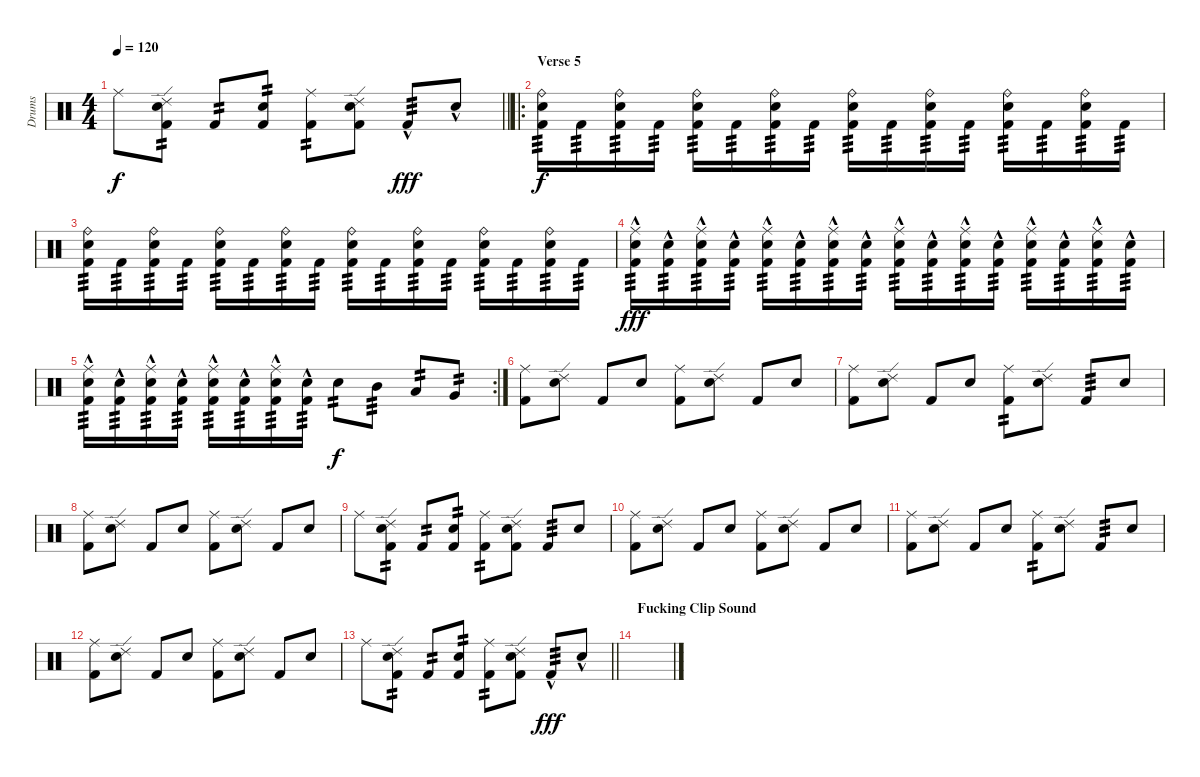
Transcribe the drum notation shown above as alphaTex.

\track ("Drums " "Drums ") {instrument percussion}
\staff {score}
\articulation defaults
\ts (4 4)
\tempo 120
\clef neutral
\barLineRight lightlight
\ks c "Ride (middle)".8{dy f}
("Ride (edge) 2" "Snare (hit) 2" "Kick (hit) 2").8{tp 2} "Kick (hit) 2".8{tp 2} ("Snare (hit) 2" "Kick (hit) 2").8{tp 2} ("Ride (middle)" "Kick (hit) 2").8{tp 2} ("Ride (edge) 2" "Snare (hit) 2" "Kick (hit) 2").8 "Kick (hit) 2"{hac}.8{tp 3 dy fff} "Snare (hit) 2"{hac}.8 |
\ro
\section ("" "Verse 5")
("Ride (bell)" "Snare (hit) 2" "Kick (hit) 2").16{tp 3 dy f} "Kick (hit) 2".16{tp 3} ("Ride (bell)" "Snare (hit) 2" "Kick (hit) 2").16{tp 3} "Kick (hit) 2".16{tp 3} ("Ride (bell)" "Snare (hit) 2" "Kick (hit) 2").16{tp 3} "Kick (hit) 2".16{tp 3} ("Ride (bell)" "Snare (hit) 2" "Kick (hit) 2").16{tp 3} "Kick (hit) 2".16{tp 3} ("Ride (bell)" "Snare (hit) 2" "Kick (hit) 2").16{tp 3} "Kick (hit) 2".16{tp 3} ("Ride (bell)" "Snare (hit) 2" "Kick (hit) 2").16{tp 3} "Kick (hit) 2".16{tp 3} ("Ride (bell)" "Snare (hit) 2" "Kick (hit) 2").16{tp 3} "Kick (hit) 2".16{tp 3} ("Ride (bell)" "Snare (hit) 2" "Kick (hit) 2").16{tp 3} "Kick (hit) 2".16{tp 3} |
("Ride (bell)" "Snare (hit) 2" "Kick (hit) 2").16{tp 3} "Kick (hit) 2".16{tp 3} ("Ride (bell)" "Snare (hit) 2" "Kick (hit) 2").16{tp 3} "Kick (hit) 2".16{tp 3} ("Ride (bell)" "Snare (hit) 2" "Kick (hit) 2").16{tp 3} "Kick (hit) 2".16{tp 3} ("Ride (bell)" "Snare (hit) 2" "Kick (hit) 2").16{tp 3} "Kick (hit) 2".16{tp 3} ("Ride (bell)" "Snare (hit) 2" "Kick (hit) 2").16{tp 3} "Kick (hit) 2".16{tp 3} ("Ride (bell)" "Snare (hit) 2" "Kick (hit) 2").16{tp 3} "Kick (hit) 2".16{tp 3} ("Ride (bell)" "Snare (hit) 2" "Kick (hit) 2").16{tp 3} "Kick (hit) 2".16{tp 3} ("Ride (bell)" "Snare (hit) 2" "Kick (hit) 2").16{tp 3} "Kick (hit) 2".16{tp 3} |
("Ride (middle)" "Snare (hit) 2" "Kick (hit) 2"{hac}).16{tp 3 dy fff} ("Snare (hit) 2" "Kick (hit) 2"{hac}).16{tp 3} ("Ride (middle)" "Snare (hit) 2" "Kick (hit) 2"{hac}).16{tp 3} ("Snare (hit) 2" "Kick (hit) 2"{hac}).16{tp 3} ("Ride (middle)" "Snare (hit) 2" "Kick (hit) 2"{hac}).16{tp 3} ("Snare (hit) 2" "Kick (hit) 2"{hac}).16{tp 3} ("Ride (middle)" "Snare (hit) 2" "Kick (hit) 2"{hac}).16{tp 3} ("Snare (hit) 2" "Kick (hit) 2"{hac}).16{tp 3} ("Ride (middle)" "Snare (hit) 2" "Kick (hit) 2"{hac}).16{tp 3} ("Snare (hit) 2" "Kick (hit) 2"{hac}).16{tp 3} ("Ride (middle)" "Snare (hit) 2" "Kick (hit) 2"{hac}).16{tp 3} ("Snare (hit) 2" "Kick (hit) 2"{hac}).16{tp 3} ("Ride (middle)" "Snare (hit) 2" "Kick (hit) 2"{hac}).16{tp 3} ("Snare (hit) 2" "Kick (hit) 2"{hac}).16{tp 3} ("Ride (middle)" "Snare (hit) 2" "Kick (hit) 2"{hac}).16{tp 3} ("Snare (hit) 2" "Kick (hit) 2"{hac}).16{tp 3} |
\rc 2
("Ride (middle)" "Snare (hit) 2" "Kick (hit) 2"{hac}).16{tp 3} ("Snare (hit) 2" "Kick (hit) 2"{hac}).16{tp 3} ("Ride (middle)" "Snare (hit) 2" "Kick (hit) 2"{hac}).16{tp 3} ("Snare (hit) 2" "Kick (hit) 2"{hac}).16{tp 3} ("Ride (middle)" "Snare (hit) 2" "Kick (hit) 2"{hac}).16{tp 3} ("Snare (hit) 2" "Kick (hit) 2"{hac}).16{tp 3} ("Ride (middle)" "Snare (hit) 2" "Kick (hit) 2"{hac}).16{tp 3} ("Snare (hit) 2" "Kick (hit) 2"{hac}).16{tp 3} "Snare (hit) 2".8{tp 2 dy f} "Mid Tom (hit)".8{tp 3} "Low Tom (hit)".8{tp 2} "Very Low Tom (hit)".8{tp 2} |
("Ride (middle)" "Kick (hit) 2").8 ("Ride (edge) 2" "Snare (hit) 2").8 "Kick (hit) 2".8 "Snare (hit) 2".8 ("Ride (middle)" "Kick (hit) 2").8 ("Ride (edge) 2" "Snare (hit) 2").8 "Kick (hit) 2".8 "Snare (hit) 2".8 |
("Ride (middle)" "Kick (hit) 2").8 ("Ride (edge) 2" "Snare (hit) 2").8 "Kick (hit) 2".8 "Snare (hit) 2".8 ("Ride (middle)" "Kick (hit) 2").8{tp 2} ("Ride (edge) 2" "Snare (hit) 2").8 "Kick (hit) 2".8{tp 3} "Snare (hit) 2".8 |
("Ride (middle)" "Kick (hit) 2").8 ("Ride (edge) 2" "Snare (hit) 2").8 "Kick (hit) 2".8 "Snare (hit) 2".8 ("Ride (middle)" "Kick (hit) 2").8 ("Ride (edge) 2" "Snare (hit) 2").8 "Kick (hit) 2".8 "Snare (hit) 2".8 |
"Ride (middle)".8 ("Ride (edge) 2" "Snare (hit) 2" "Kick (hit) 2").8{tp 2} "Kick (hit) 2".8{tp 2} ("Snare (hit) 2" "Kick (hit) 2").8{tp 2} ("Ride (middle)" "Kick (hit) 2").8{tp 2} ("Ride (edge) 2" "Snare (hit) 2" "Kick (hit) 2").8 "Kick (hit) 2".8{tp 3} "Snare (hit) 2".8 |
("Ride (middle)" "Kick (hit) 2").8 ("Ride (edge) 2" "Snare (hit) 2").8 "Kick (hit) 2".8 "Snare (hit) 2".8 ("Ride (middle)" "Kick (hit) 2").8 ("Ride (edge) 2" "Snare (hit) 2").8 "Kick (hit) 2".8 "Snare (hit) 2".8 |
("Ride (middle)" "Kick (hit) 2").8 ("Ride (edge) 2" "Snare (hit) 2").8 "Kick (hit) 2".8 "Snare (hit) 2".8 ("Ride (middle)" "Kick (hit) 2").8{tp 2} ("Ride (edge) 2" "Snare (hit) 2").8 "Kick (hit) 2".8{tp 3} "Snare (hit) 2".8 |
("Ride (middle)" "Kick (hit) 2").8 ("Ride (edge) 2" "Snare (hit) 2").8 "Kick (hit) 2".8 "Snare (hit) 2".8 ("Ride (middle)" "Kick (hit) 2").8 ("Ride (edge) 2" "Snare (hit) 2").8 "Kick (hit) 2".8 "Snare (hit) 2".8 |
\barLineRight lightlight "Ride (middle)".8
("Ride (edge) 2" "Snare (hit) 2" "Kick (hit) 2").8{tp 2} "Kick (hit) 2".8{tp 2} ("Snare (hit) 2" "Kick (hit) 2").8{tp 2} ("Ride (middle)" "Kick (hit) 2").8{tp 2} ("Ride (edge) 2" "Snare (hit) 2" "Kick (hit) 2").8 "Kick (hit) 2"{hac}.8{tp 3 dy fff} "Snare (hit) 2"{hac}.8 |
\section ("" "Fucking Clip Sound")
